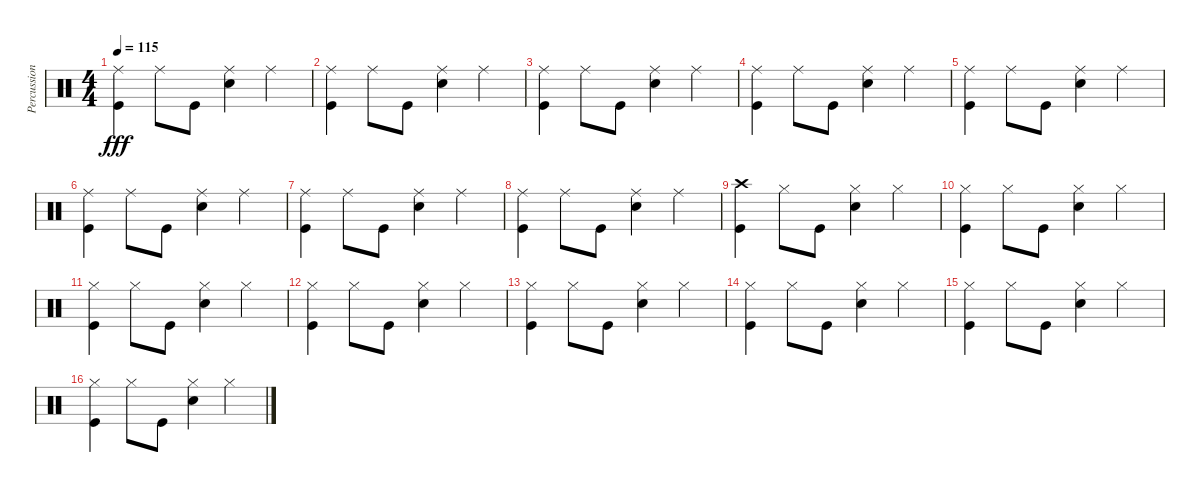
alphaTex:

\track ("Percussioni" "Percussion") {instrument percussion}
\staff {score}
\articulation defaults
\ts (4 4)
\tempo 115
\clef neutral
\ks c
("Ride (middle)" "Kick (hit)").4{dy fff} "Ride (middle)".8 "Kick (hit)".8 ("Ride (middle)" "Snare (hit) 2").4 "Ride (middle)".4 |
("Ride (middle)" "Kick (hit)").4 "Ride (middle)".8 "Kick (hit)".8 ("Ride (middle)" "Snare (hit) 2").4 "Ride (middle)".4 |
("Ride (middle)" "Kick (hit)").4 "Ride (middle)".8 "Kick (hit)".8 ("Ride (middle)" "Snare (hit) 2").4 "Ride (middle)".4 |
("Ride (middle)" "Kick (hit)").4 "Ride (middle)".8 "Kick (hit)".8 ("Ride (middle)" "Snare (hit) 2").4 "Ride (middle)".4 |
("Ride (middle)" "Kick (hit)").4 "Ride (middle)".8 "Kick (hit)".8 ("Ride (middle)" "Snare (hit) 2").4 "Ride (middle)".4 |
("Ride (middle)" "Kick (hit)").4 "Ride (middle)".8 "Kick (hit)".8 ("Ride (middle)" "Snare (hit) 2").4 "Ride (middle)".4 |
("Ride (middle)" "Kick (hit)").4 "Ride (middle)".8 "Kick (hit)".8 ("Ride (middle)" "Snare (hit) 2").4 "Ride (middle)".4 |
("Ride (middle)" "Kick (hit)").4 "Ride (middle)".8 "Kick (hit)".8 ("Ride (middle)" "Snare (hit) 2").4 "Ride (middle)".4 |
("Crash high (hit)" "Kick (hit)").4 "Hi-Hat (closed)".8 "Kick (hit)".8 ("Hi-Hat (closed)" "Snare (hit) 2").4 "Hi-Hat (closed)".4 |
("Hi-Hat (closed)" "Kick (hit)").4 "Hi-Hat (closed)".8 "Kick (hit)".8 ("Hi-Hat (closed)" "Snare (hit) 2").4 "Hi-Hat (closed)".4 |
("Hi-Hat (closed)" "Kick (hit)").4 "Hi-Hat (closed)".8 "Kick (hit)".8 ("Hi-Hat (closed)" "Snare (hit) 2").4 "Hi-Hat (closed)".4 |
("Hi-Hat (closed)" "Kick (hit)").4 "Hi-Hat (closed)".8 "Kick (hit)".8 ("Hi-Hat (closed)" "Snare (hit) 2").4 "Hi-Hat (closed)".4 |
("Hi-Hat (closed)" "Kick (hit)").4 "Hi-Hat (closed)".8 "Kick (hit)".8 ("Hi-Hat (closed)" "Snare (hit) 2").4 "Hi-Hat (closed)".4 |
("Hi-Hat (closed)" "Kick (hit)").4 "Hi-Hat (closed)".8 "Kick (hit)".8 ("Hi-Hat (closed)" "Snare (hit) 2").4 "Hi-Hat (closed)".4 |
("Hi-Hat (closed)" "Kick (hit)").4 "Hi-Hat (closed)".8 "Kick (hit)".8 ("Hi-Hat (closed)" "Snare (hit) 2").4 "Hi-Hat (closed)".4 |
("Hi-Hat (closed)" "Kick (hit)").4 "Hi-Hat (closed)".8 "Kick (hit)".8 ("Hi-Hat (closed)" "Snare (hit) 2").4 "Hi-Hat (closed)".4
